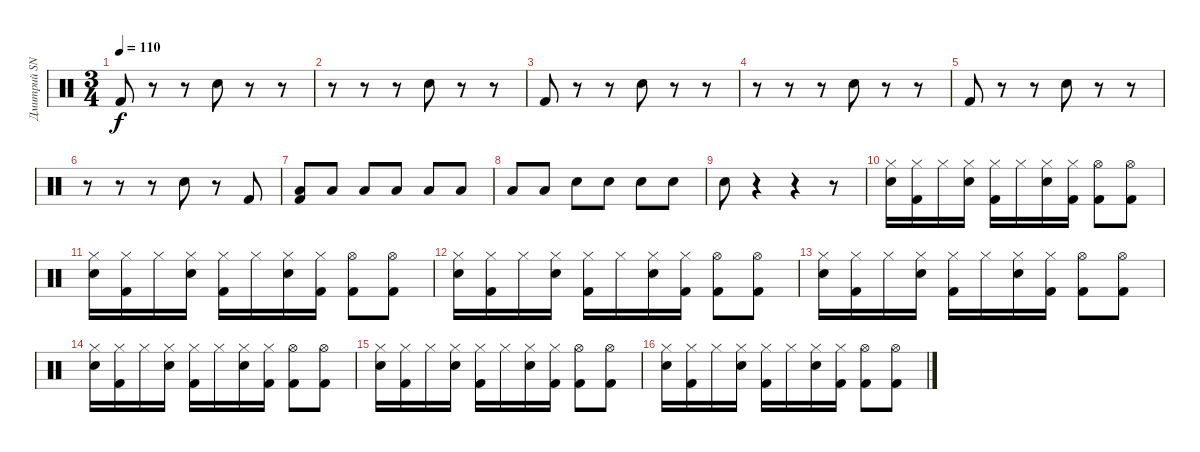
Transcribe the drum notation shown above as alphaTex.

\track ("Дмитрий SNAKE" "Дмитрий SN") {instrument percussion}
\staff {score}
\articulation defaults
\ts (3 4)
\tempo 110
\clef neutral
\ks c "Kick (hit) 2".8{dy f}
r.8 r.8 "Hand Clap (hit)".8 r.8 r.8 |
r.8 r.8 r.8 "Hand Clap (hit)".8 r.8 r.8 |
"Kick (hit) 2".8 r.8 r.8 "Hand Clap (hit)".8 r.8 r.8 |
r.8 r.8 r.8 "Hand Clap (hit)".8 r.8 r.8 |
"Kick (hit) 2".8 r.8 r.8 "Hand Clap (hit)".8 r.8 r.8 |
r.8 r.8 r.8 "Hand Clap (hit)".8 r.8 "Kick (hit) 2".8 |
("Low Tom (hit)" "Kick (hit) 2").8 "Low Tom (hit)".8 "Low Tom (hit)".8 "Low Tom (hit)".8 "Low Tom (hit)".8 "Low Tom (hit)".8 |
"Low Tom (hit)".8 "Low Tom (hit)".8 "Snare (hit) 2".8 "Snare (hit) 2".8 "Snare (hit) 2".8 "Snare (hit) 2".8 |
"Snare (hit) 2".8 r.4 r.4 r.8 |
("Hi-Hat (closed)" "Snare (hit) 2").16 ("Hi-Hat (closed)" "Kick (hit) 2").16 "Hi-Hat (closed)".16 ("Hi-Hat (closed)" "Snare (hit) 2").16 ("Hi-Hat (closed)" "Kick (hit) 2").16 "Hi-Hat (closed)".16 ("Hi-Hat (closed)" "Snare (hit) 2").16 ("Hi-Hat (closed)" "Kick (hit) 2").16 ("Hi-Hat (open)" "Kick (hit) 2").8 ("Hi-Hat (open)" "Kick (hit) 2").8 |
("Hi-Hat (closed)" "Snare (hit) 2").16 ("Hi-Hat (closed)" "Kick (hit) 2").16 "Hi-Hat (closed)".16 ("Hi-Hat (closed)" "Snare (hit) 2").16 ("Hi-Hat (closed)" "Kick (hit) 2").16 "Hi-Hat (closed)".16 ("Hi-Hat (closed)" "Snare (hit) 2").16 ("Hi-Hat (closed)" "Kick (hit) 2").16 ("Hi-Hat (open)" "Kick (hit) 2").8 ("Hi-Hat (open)" "Kick (hit) 2").8 |
("Hi-Hat (closed)" "Snare (hit) 2").16 ("Hi-Hat (closed)" "Kick (hit) 2").16 "Hi-Hat (closed)".16 ("Hi-Hat (closed)" "Snare (hit) 2").16 ("Hi-Hat (closed)" "Kick (hit) 2").16 "Hi-Hat (closed)".16 ("Hi-Hat (closed)" "Snare (hit) 2").16 ("Hi-Hat (closed)" "Kick (hit) 2").16 ("Hi-Hat (open)" "Kick (hit) 2").8 ("Hi-Hat (open)" "Kick (hit) 2").8 |
("Hi-Hat (closed)" "Snare (hit) 2").16 ("Hi-Hat (closed)" "Kick (hit) 2").16 "Hi-Hat (closed)".16 ("Hi-Hat (closed)" "Snare (hit) 2").16 ("Hi-Hat (closed)" "Kick (hit) 2").16 "Hi-Hat (closed)".16 ("Hi-Hat (closed)" "Snare (hit) 2").16 ("Hi-Hat (closed)" "Kick (hit) 2").16 ("Hi-Hat (open)" "Kick (hit) 2").8 ("Hi-Hat (open)" "Kick (hit) 2").8 |
("Hi-Hat (closed)" "Snare (hit) 2").16 ("Hi-Hat (closed)" "Kick (hit) 2").16 "Hi-Hat (closed)".16 ("Hi-Hat (closed)" "Snare (hit) 2").16 ("Hi-Hat (closed)" "Kick (hit) 2").16 "Hi-Hat (closed)".16 ("Hi-Hat (closed)" "Snare (hit) 2").16 ("Hi-Hat (closed)" "Kick (hit) 2").16 ("Hi-Hat (open)" "Kick (hit) 2").8 ("Hi-Hat (open)" "Kick (hit) 2").8 |
("Hi-Hat (closed)" "Snare (hit) 2").16 ("Hi-Hat (closed)" "Kick (hit) 2").16 "Hi-Hat (closed)".16 ("Hi-Hat (closed)" "Snare (hit) 2").16 ("Hi-Hat (closed)" "Kick (hit) 2").16 "Hi-Hat (closed)".16 ("Hi-Hat (closed)" "Snare (hit) 2").16 ("Hi-Hat (closed)" "Kick (hit) 2").16 ("Hi-Hat (open)" "Kick (hit) 2").8 ("Hi-Hat (open)" "Kick (hit) 2").8 |
("Hi-Hat (closed)" "Snare (hit) 2").16 ("Hi-Hat (closed)" "Kick (hit) 2").16 "Hi-Hat (closed)".16 ("Hi-Hat (closed)" "Snare (hit) 2").16 ("Hi-Hat (closed)" "Kick (hit) 2").16 "Hi-Hat (closed)".16 ("Hi-Hat (closed)" "Snare (hit) 2").16 ("Hi-Hat (closed)" "Kick (hit) 2").16 ("Hi-Hat (open)" "Kick (hit) 2").8 ("Hi-Hat (open)" "Kick (hit) 2").8
